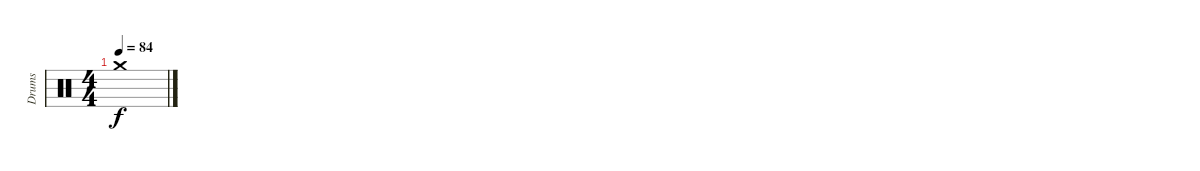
\track ("Drums" "Drums") {instrument percussion}
\staff {score}
\articulation defaults
\ts (4 4)
\tempo 84
\clef neutral
\ks c "Crash medium (hit)".1{dy f}
